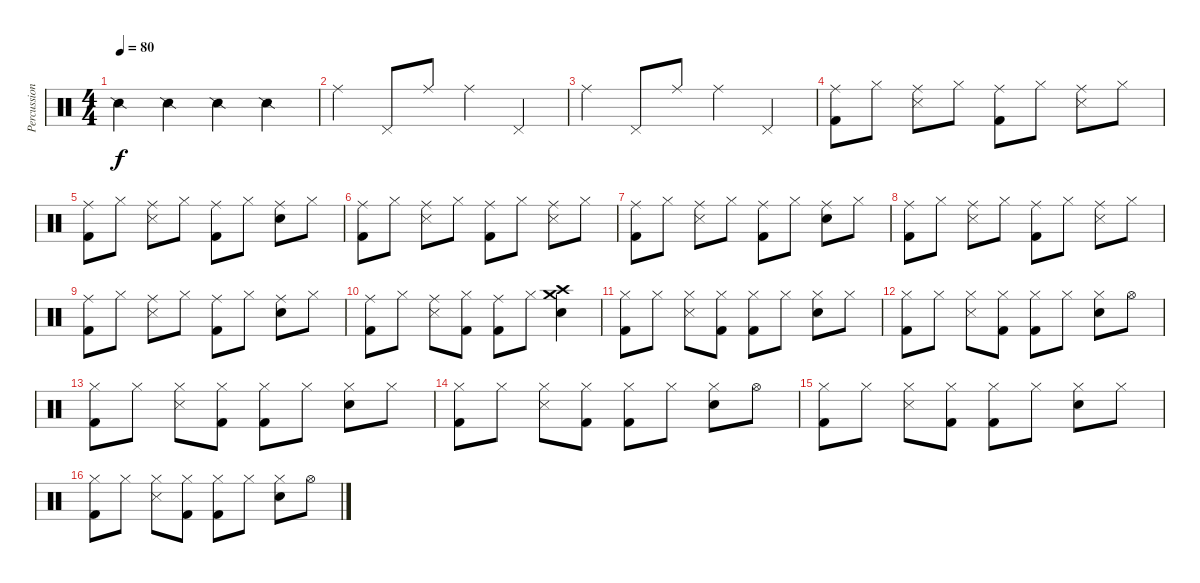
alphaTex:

\track ("Percussion" "Percussion") {instrument percussion}
\staff {score}
\articulation defaults
\ts (4 4)
\tempo 80
\clef neutral
\ks c "Snare (side stick) 2".4{dy f} "Snare (side stick) 2".4 "Snare (side stick) 2".4 "Snare (side stick) 2".4
|
"Ride (middle)".4 "Pedal Hi-Hat (hit)".8 "Ride (middle)".8 "Ride (middle)".4 "Pedal Hi-Hat (hit)".4 |
"Ride (middle)".4 "Pedal Hi-Hat (hit)".8 "Ride (middle)".8 "Ride (middle)".4 "Pedal Hi-Hat (hit)".4 |
("Ride (middle)" "Kick (hit) 2").8 "Hi-Hat (closed)".8 ("Ride (middle)" "Snare (side stick) 3").8 "Hi-Hat (closed)".8 ("Ride (middle)" "Kick (hit) 2").8 "Hi-Hat (closed)".8 ("Ride (middle)" "Snare (side stick) 3").8 "Hi-Hat (closed)".8 |
("Ride (middle)" "Kick (hit) 2").8 "Hi-Hat (closed)".8 ("Ride (middle)" "Snare (side stick) 3").8 "Hi-Hat (closed)".8 ("Ride (middle)" "Kick (hit) 2").8 "Hi-Hat (closed)".8 ("Ride (middle)" "Snare (hit) 2").8 "Hi-Hat (closed)".8 |
("Ride (middle)" "Kick (hit) 2").8 "Hi-Hat (closed)".8 ("Ride (middle)" "Snare (side stick) 3").8 "Hi-Hat (closed)".8 ("Ride (middle)" "Kick (hit) 2").8 "Hi-Hat (closed)".8 ("Ride (middle)" "Snare (side stick) 3").8 "Hi-Hat (closed)".8 |
("Ride (middle)" "Kick (hit) 2").8 "Hi-Hat (closed)".8 ("Ride (middle)" "Snare (side stick) 3").8 "Hi-Hat (closed)".8 ("Ride (middle)" "Kick (hit) 2").8 "Hi-Hat (closed)".8 ("Ride (middle)" "Snare (hit) 2").8 "Hi-Hat (closed)".8 |
("Ride (middle)" "Kick (hit) 2").8 "Hi-Hat (closed)".8 ("Ride (middle)" "Snare (side stick) 3").8 "Hi-Hat (closed)".8 ("Ride (middle)" "Kick (hit) 2").8 "Hi-Hat (closed)".8 ("Ride (middle)" "Snare (side stick) 3").8 "Hi-Hat (closed)".8 |
("Ride (middle)" "Kick (hit) 2").8 "Hi-Hat (closed)".8 ("Ride (middle)" "Snare (side stick) 3").8 "Hi-Hat (closed)".8 ("Ride (middle)" "Kick (hit) 2").8 "Hi-Hat (closed)".8 ("Ride (middle)" "Snare (hit) 2").8 "Hi-Hat (closed)".8 |
("Ride (middle)" "Kick (hit) 2").8 "Hi-Hat (closed)".8 ("Ride (middle)" "Snare (side stick) 3").8 ("Hi-Hat (closed)" "Kick (hit) 2").8 ("Ride (middle)" "Kick (hit) 2").8 "Hi-Hat (closed)".8 ("Crash medium (hit)" "Crash high (hit)" "Snare (hit) 2").4 |
("Hi-Hat (closed)" "Kick (hit) 2").8 "Hi-Hat (closed)".8 ("Hi-Hat (closed)" "Snare (side stick) 3").8 ("Hi-Hat (closed)" "Kick (hit) 2").8 ("Hi-Hat (closed)" "Kick (hit) 2").8 "Hi-Hat (closed)".8 ("Hi-Hat (closed)" "Snare (hit) 2").8 "Hi-Hat (closed)".8 |
("Hi-Hat (closed)" "Kick (hit) 2").8 "Hi-Hat (closed)".8 ("Hi-Hat (closed)" "Snare (side stick) 3").8 ("Hi-Hat (closed)" "Kick (hit) 2").8 ("Hi-Hat (closed)" "Kick (hit) 2").8 "Hi-Hat (closed)".8 ("Hi-Hat (closed)" "Snare (hit) 2").8 "Hi-Hat (open)".8 |
("Hi-Hat (closed)" "Kick (hit) 2").8 "Hi-Hat (closed)".8 ("Hi-Hat (closed)" "Snare (side stick) 3").8 ("Hi-Hat (closed)" "Kick (hit) 2").8 ("Hi-Hat (closed)" "Kick (hit) 2").8 "Hi-Hat (closed)".8 ("Hi-Hat (closed)" "Snare (hit) 2").8 "Hi-Hat (closed)".8 |
("Hi-Hat (closed)" "Kick (hit) 2").8 "Hi-Hat (closed)".8 ("Hi-Hat (closed)" "Snare (side stick) 3").8 ("Hi-Hat (closed)" "Kick (hit) 2").8 ("Hi-Hat (closed)" "Kick (hit) 2").8 "Hi-Hat (closed)".8 ("Hi-Hat (closed)" "Snare (hit) 2").8 "Hi-Hat (open)".8 |
("Hi-Hat (closed)" "Kick (hit) 2").8 "Hi-Hat (closed)".8 ("Hi-Hat (closed)" "Snare (side stick) 3").8 ("Hi-Hat (closed)" "Kick (hit) 2").8 ("Hi-Hat (closed)" "Kick (hit) 2").8 "Hi-Hat (closed)".8 ("Hi-Hat (closed)" "Snare (hit) 2").8 "Hi-Hat (closed)".8 |
("Hi-Hat (closed)" "Kick (hit) 2").8 "Hi-Hat (closed)".8 ("Hi-Hat (closed)" "Snare (side stick) 3").8 ("Hi-Hat (closed)" "Kick (hit) 2").8 ("Hi-Hat (closed)" "Kick (hit) 2").8 "Hi-Hat (closed)".8 ("Hi-Hat (closed)" "Snare (hit) 2").8 "Hi-Hat (open)".8
